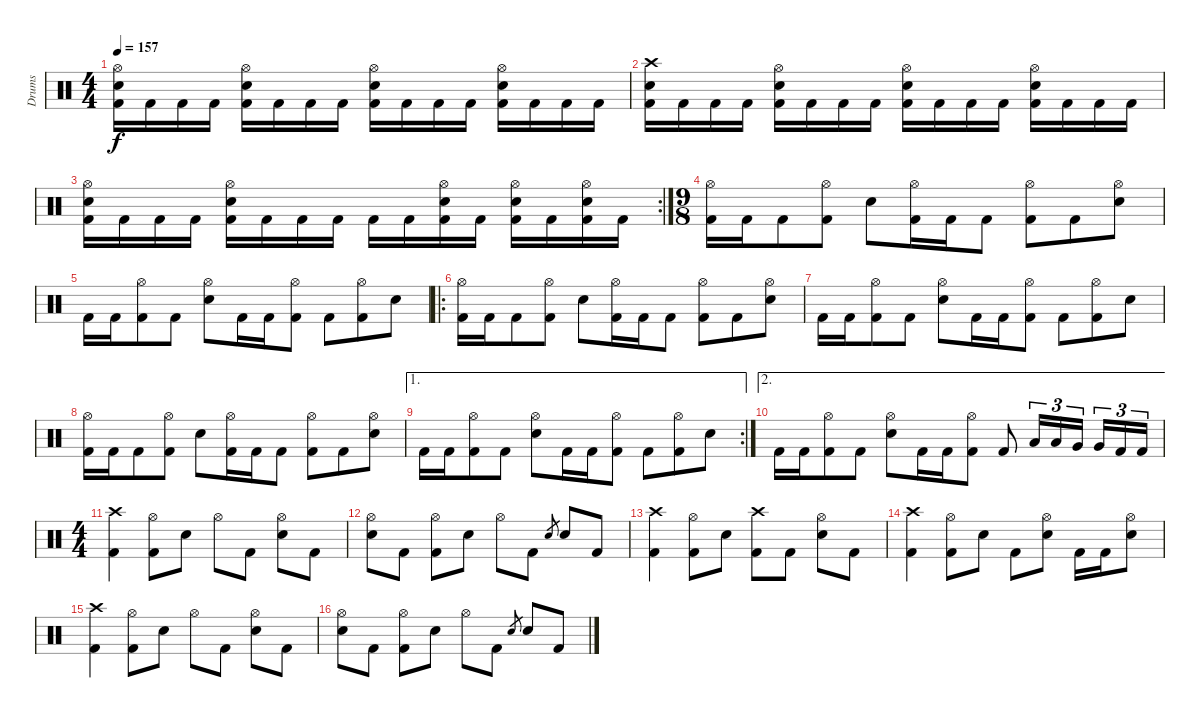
\track ("Drums" "Drums") {instrument percussion}
\staff {score}
\articulation defaults
\ts (4 4)
\tempo 157
\clef neutral
\ks c
("Hi-Hat (open)" "Electric Snare (hit)" "Kick (hit) 2").16{dy f} "Kick (hit) 2".16 "Kick (hit) 2".16 "Kick (hit) 2".16 ("Hi-Hat (open)" "Electric Snare (hit)" "Kick (hit) 2").16 "Kick (hit) 2".16 "Kick (hit) 2".16 "Kick (hit) 2".16 ("Hi-Hat (open)" "Electric Snare (hit)" "Kick (hit) 2").16 "Kick (hit) 2".16 "Kick (hit) 2".16 "Kick (hit) 2".16 ("Hi-Hat (open)" "Electric Snare (hit)" "Kick (hit) 2").16 "Kick (hit) 2".16 "Kick (hit) 2".16 "Kick (hit) 2".16 |
("Crash high (hit)" "Electric Snare (hit)" "Kick (hit) 2").16 "Kick (hit) 2".16 "Kick (hit) 2".16 "Kick (hit) 2".16 ("Hi-Hat (open)" "Electric Snare (hit)" "Kick (hit) 2").16 "Kick (hit) 2".16 "Kick (hit) 2".16 "Kick (hit) 2".16 ("Hi-Hat (open)" "Electric Snare (hit)" "Kick (hit) 2").16 "Kick (hit) 2".16 "Kick (hit) 2".16 "Kick (hit) 2".16 ("Hi-Hat (open)" "Electric Snare (hit)" "Kick (hit) 2").16 "Kick (hit) 2".16 "Kick (hit) 2".16 "Kick (hit) 2".16 |
\rc 2
("Hi-Hat (open)" "Electric Snare (hit)" "Kick (hit) 2").16 "Kick (hit) 2".16 "Kick (hit) 2".16 "Kick (hit) 2".16 ("Hi-Hat (open)" "Electric Snare (hit)" "Kick (hit) 2").16 "Kick (hit) 2".16 "Kick (hit) 2".16 "Kick (hit) 2".16 "Kick (hit) 2".16 "Kick (hit) 2".16 ("Hi-Hat (open)" "Electric Snare (hit)" "Kick (hit) 2").16 "Kick (hit) 2".16 ("Hi-Hat (open)" "Electric Snare (hit)" "Kick (hit) 2").16 "Kick (hit) 2".16 ("Hi-Hat (open)" "Electric Snare (hit)" "Kick (hit) 2").16 "Kick (hit) 2".16 |
\ts (9 8)
("Hi-Hat (open)" "Kick (hit) 2").16 "Kick (hit) 2".16 "Kick (hit) 2".8 ("Hi-Hat (open)" "Kick (hit) 2").8 "Electric Snare (hit)".8 ("Hi-Hat (open)" "Kick (hit) 2").16 "Kick (hit) 2".16 "Kick (hit) 2".8 ("Hi-Hat (open)" "Kick (hit) 2").8 "Kick (hit) 2".8 ("Hi-Hat (open)" "Electric Snare (hit)").8 |
"Kick (hit) 2".16 "Kick (hit) 2".16 ("Hi-Hat (open)" "Kick (hit) 2").8 "Kick (hit) 2".8 ("Hi-Hat (open)" "Electric Snare (hit)").8 "Kick (hit) 2".16 "Kick (hit) 2".16 ("Hi-Hat (open)" "Kick (hit) 2").8 "Kick (hit) 2".8 ("Hi-Hat (open)" "Kick (hit) 2").8 "Electric Snare (hit)".8 |
\ro
("Hi-Hat (open)" "Kick (hit) 2").16 "Kick (hit) 2".16 "Kick (hit) 2".8 ("Hi-Hat (open)" "Kick (hit) 2").8 "Electric Snare (hit)".8 ("Hi-Hat (open)" "Kick (hit) 2").16 "Kick (hit) 2".16 "Kick (hit) 2".8 ("Hi-Hat (open)" "Kick (hit) 2").8 "Kick (hit) 2".8 ("Hi-Hat (open)" "Electric Snare (hit)").8 |
"Kick (hit) 2".16 "Kick (hit) 2".16 ("Hi-Hat (open)" "Kick (hit) 2").8 "Kick (hit) 2".8 ("Hi-Hat (open)" "Electric Snare (hit)").8 "Kick (hit) 2".16 "Kick (hit) 2".16 ("Hi-Hat (open)" "Kick (hit) 2").8 "Kick (hit) 2".8 ("Hi-Hat (open)" "Kick (hit) 2").8 "Electric Snare (hit)".8 |
("Hi-Hat (open)" "Kick (hit) 2").16 "Kick (hit) 2".16 "Kick (hit) 2".8 ("Hi-Hat (open)" "Kick (hit) 2").8 "Electric Snare (hit)".8 ("Hi-Hat (open)" "Kick (hit) 2").16 "Kick (hit) 2".16 "Kick (hit) 2".8 ("Hi-Hat (open)" "Kick (hit) 2").8 "Kick (hit) 2".8 ("Hi-Hat (open)" "Electric Snare (hit)").8 |
\ae 1
\rc 2 "Kick (hit) 2".16 "Kick (hit) 2".16
("Hi-Hat (open)" "Kick (hit) 2").8 "Kick (hit) 2".8 ("Hi-Hat (open)" "Electric Snare (hit)").8 "Kick (hit) 2".16 "Kick (hit) 2".16 ("Hi-Hat (open)" "Kick (hit) 2").8 "Kick (hit) 2".8 ("Hi-Hat (open)" "Kick (hit) 2").8 "Electric Snare (hit)".8 |
\ae 2 "Kick (hit) 2".16 "Kick (hit) 2".16
("Hi-Hat (open)" "Kick (hit) 2").8 "Kick (hit) 2".8 ("Hi-Hat (open)" "Electric Snare (hit)").8 "Kick (hit) 2".16 "Kick (hit) 2".16 ("Hi-Hat (open)" "Kick (hit) 2").8 "Kick (hit) 2".8 "Low Tom (hit)".16{tu (3 2)} "Low Tom (hit)".16{tu (3 2)} "Very Low Tom (hit)".16{tu (3 2)} "Very Low Tom (hit)".16{tu (3 2)} "Kick (hit) 2".16{tu (3 2)} "Kick (hit) 2".16{tu (3 2)} |
\ts (4 4)
("Crash high (hit)" "Kick (hit) 2").4 ("Hi-Hat (open)" "Kick (hit) 2").8 "Electric Snare (hit)".8 "Hi-Hat (open)".8 "Kick (hit) 2".8 ("Hi-Hat (open)" "Electric Snare (hit)").8 "Kick (hit) 2".8 |
("Hi-Hat (open)" "Electric Snare (hit)").8 "Kick (hit) 2".8 ("Hi-Hat (open)" "Kick (hit) 2").8 "Electric Snare (hit)".8 "Hi-Hat (open)".8 "Kick (hit) 2".8 "Electric Snare (hit)".8{gr} "Electric Snare (hit)".8 "Kick (hit) 2".8 |
("Crash high (hit)" "Kick (hit) 2").4 ("Hi-Hat (open)" "Kick (hit) 2").8 "Electric Snare (hit)".8 ("Crash high (hit)" "Kick (hit) 2").8 "Kick (hit) 2".8 ("Hi-Hat (open)" "Electric Snare (hit)").8 "Kick (hit) 2".8 |
("Crash high (hit)" "Kick (hit) 2").4 ("Hi-Hat (open)" "Kick (hit) 2").8 "Electric Snare (hit)".8 "Kick (hit) 2".8 ("Hi-Hat (open)" "Electric Snare (hit)").8 "Kick (hit) 2".16 "Kick (hit) 2".16 ("Hi-Hat (open)" "Electric Snare (hit)").8 |
("Crash high (hit)" "Kick (hit) 2").4 ("Hi-Hat (open)" "Kick (hit) 2").8 "Electric Snare (hit)".8 "Hi-Hat (open)".8 "Kick (hit) 2".8 ("Hi-Hat (open)" "Electric Snare (hit)").8 "Kick (hit) 2".8 |
("Hi-Hat (open)" "Electric Snare (hit)").8 "Kick (hit) 2".8 ("Hi-Hat (open)" "Kick (hit) 2").8 "Electric Snare (hit)".8 "Hi-Hat (open)".8 "Kick (hit) 2".8 "Electric Snare (hit)".8{gr} "Electric Snare (hit)".8 "Kick (hit) 2".8
